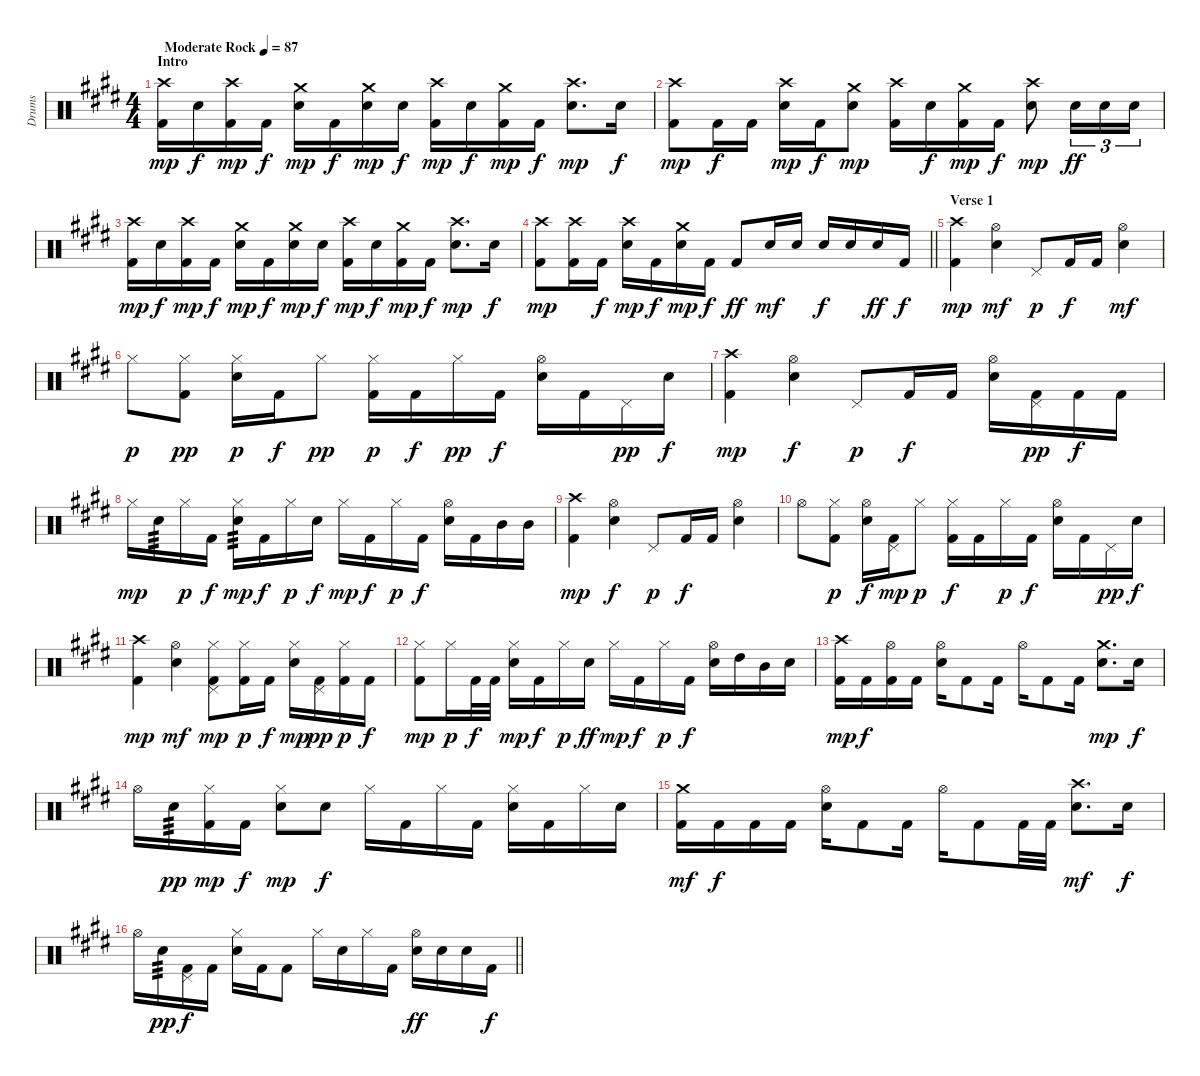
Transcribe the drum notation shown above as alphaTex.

\track ("Drums" "Drums") {instrument percussion}
\staff {score}
\articulation defaults
\ts (4 4)
\section ("" "Intro")
\tempo (87 "Moderate Rock")
\clef neutral
\ks c#minor
("Crash high (hit)" "Kick (hit) 2").16{dy mp} "Electric Snare (hit)".16{dy f} ("Kick (hit) 2" "Crash high (hit)").16{dy mp} "Kick (hit) 2".16{dy f} ("Electric Snare (hit)" "Crash medium (hit)").16{dy mp} "Kick (hit) 2".16{dy f} ("Crash medium (hit)" "Electric Snare (hit)").16{dy mp} "Electric Snare (hit)".16{dy f} ("Kick (hit) 2" "Crash high (hit)").16{dy mp} "Electric Snare (hit)".16{dy f} ("Kick (hit) 2" "Crash medium (hit)").16{dy mp} "Kick (hit) 2".16{dy f} ("Electric Snare (hit)" "Crash high (hit)").8{d dy mp} "Electric Snare (hit)".16{dy f} |
("Kick (hit) 2" "Crash high (hit)").8{dy mp} "Kick (hit) 2".16{dy f} "Kick (hit) 2".16 ("Electric Snare (hit)" "Crash high (hit)").16{dy mp} "Kick (hit) 2".16{dy f} ("Electric Snare (hit)" "Crash medium (hit)").8{dy mp} ("Kick (hit) 2" "Crash high (hit)").16 "Electric Snare (hit)".16{dy f} ("Kick (hit) 2" "Crash medium (hit)").16{dy mp} "Kick (hit) 2".16{dy f} ("Electric Snare (hit)" "Crash high (hit)").8{dy mp} "Electric Snare (hit)".16{tu (3 2) dy ff} "Electric Snare (hit)".16{tu (3 2)} "Electric Snare (hit)".16{tu (3 2)} |
("Crash high (hit)" "Kick (hit) 2").16{dy mp} "Electric Snare (hit)".16{dy f} ("Kick (hit) 2" "Crash high (hit)").16{dy mp} "Kick (hit) 2".16{dy f} ("Electric Snare (hit)" "Crash medium (hit)").16{dy mp} "Kick (hit) 2".16{dy f} ("Crash medium (hit)" "Electric Snare (hit)").16{dy mp} "Electric Snare (hit)".16{dy f} ("Kick (hit) 2" "Crash high (hit)").16{dy mp} "Electric Snare (hit)".16{dy f} ("Kick (hit) 2" "Crash medium (hit)").16{dy mp} "Kick (hit) 2".16{dy f} ("Electric Snare (hit)" "Crash high (hit)").8{d dy mp} "Electric Snare (hit)".16{dy f} |
\barLineRight lightlight
("Kick (hit) 2" "Crash high (hit)").8{dy mp} ("Kick (hit) 2" "Crash high (hit)").16 "Kick (hit) 2".16{dy f} ("Electric Snare (hit)" "Crash high (hit)").16{dy mp} "Kick (hit) 2".16{dy f} ("Electric Snare (hit)" "Crash medium (hit)").16{dy mp} "Kick (hit) 2".16{dy f} "Kick (hit) 2".8{dy ff} "Electric Snare (hit)".16{dy mf} "Electric Snare (hit)".16 "Electric Snare (hit)".16{dy f} "Electric Snare (hit)".16 "Electric Snare (hit)".16{dy ff} "Kick (hit) 2".16{dy f} |
\section ("" "Verse 1")
("Kick (hit) 2" "Crash high (hit)").4{dy mp} ("Electric Snare (hit)" "Hi-Hat (open)").4{dy mf} "Pedal Hi-Hat (hit)".8{dy p} "Kick (hit) 2".16{dy f} "Kick (hit) 2".16 ("Electric Snare (hit)" "Hi-Hat (open)").4{dy mf} |
"Hi-Hat (closed)".8{dy p} ("Hi-Hat (closed)" "Kick (hit) 2").8{dy pp} ("Hi-Hat (closed)" "Electric Snare (hit)").16{dy p} "Kick (hit) 2".16{dy f} "Hi-Hat (closed)".8{dy pp} ("Hi-Hat (closed)" "Kick (hit) 2").16{dy p} "Kick (hit) 2".16{dy f} "Hi-Hat (closed)".16{dy pp} "Kick (hit) 2".16{dy f} ("Hi-Hat (open)" "Electric Snare (hit)").16 "Kick (hit) 2".16 "Pedal Hi-Hat (hit)".16{dy pp} "Electric Snare (hit)".16{dy f} |
("Kick (hit) 2" "Crash high (hit)").4{dy mp} ("Electric Snare (hit)" "Hi-Hat (open)").4{dy f} "Pedal Hi-Hat (hit)".8{dy p} "Kick (hit) 2".16{dy f} "Kick (hit) 2".16 ("Electric Snare (hit)" "Hi-Hat (open)").16 ("Pedal Hi-Hat (hit)" "Kick (hit) 2").16{dy pp} "Kick (hit) 2".16{dy f} "Kick (hit) 2".16 |
"Hi-Hat (closed)".16{dy mp} "Electric Snare (hit)".16{tp 3} "Hi-Hat (closed)".16{dy p} "Kick (hit) 2".16{dy f} ("Electric Snare (hit)" "Hi-Hat (closed)").16{tp 3 dy mp} "Kick (hit) 2".16{dy f} "Hi-Hat (closed)".16{dy p} "Electric Snare (hit)".16{dy f} "Hi-Hat (closed)".16{dy mp} "Kick (hit) 2".16{dy f} "Hi-Hat (closed)".16{dy p} "Kick (hit) 2".16{dy f} ("Hi-Hat (open)" "Electric Snare (hit)").16 "Kick (hit) 2".16 "Mid Tom (hit)".16 "Mid Tom (hit)".16 |
("Kick (hit) 2" "Crash high (hit)").4{dy mp} ("Electric Snare (hit)" "Hi-Hat (open)").4{dy f} "Pedal Hi-Hat (hit)".8{dy p} "Kick (hit) 2".16{dy f} "Kick (hit) 2".16 ("Electric Snare (hit)" "Hi-Hat (open)").4 |
"Hi-Hat (open)".8 ("Hi-Hat (closed)" "Kick (hit) 2").8{dy p} ("Hi-Hat (open)" "Electric Snare (hit)").16{dy f} ("Pedal Hi-Hat (hit)" "Kick (hit) 2").16{dy mp} "Hi-Hat (closed)".8{dy p} ("Hi-Hat (closed)" "Kick (hit) 2").16{dy f} "Kick (hit) 2".16 "Hi-Hat (closed)".16{dy p} "Kick (hit) 2".16{dy f} ("Hi-Hat (open)" "Electric Snare (hit)").16 "Kick (hit) 2".16 "Pedal Hi-Hat (hit)".16{dy pp} "Electric Snare (hit)".16{dy f} |
("Kick (hit) 2" "Crash high (hit)").4{dy mp} ("Electric Snare (hit)" "Hi-Hat (open)").4{dy mf} ("Pedal Hi-Hat (hit)" "Kick (hit) 2" "Hi-Hat (closed)").8{dy mp} ("Kick (hit) 2" "Hi-Hat (closed)").16{dy p} "Kick (hit) 2".16{dy f} ("Electric Snare (hit)" "Hi-Hat (closed)").16{dy mp} ("Pedal Hi-Hat (hit)" "Kick (hit) 2").16{dy pp} ("Kick (hit) 2" "Hi-Hat (closed)").16{dy p} "Kick (hit) 2".16{dy f} |
("Hi-Hat (closed)" "Kick (hit) 2").8{dy mp} "Hi-Hat (closed)".16{dy p} "Kick (hit) 2".32{dy f} "Kick (hit) 2".32 ("Hi-Hat (closed)" "Electric Snare (hit)").16{dy mp} "Kick (hit) 2".16{dy f} "Hi-Hat (closed)".16{dy p} "Electric Snare (hit)".16{dy ff} "Hi-Hat (closed)".16{dy mp} "Kick (hit) 2".16{dy f} "Hi-Hat (closed)".16{dy p} "Kick (hit) 2".16{dy f} ("Hi-Hat (open)" "Electric Snare (hit)").16 "High Tom (hit)".16 "Mid Tom (hit)".16 "Electric Snare (hit)".16 |
("Crash high (hit)" "Kick (hit) 2").16{dy mp} "Kick (hit) 2".16{dy f} ("Kick (hit) 2" "Hi-Hat (open)").16 "Kick (hit) 2".16 ("Hi-Hat (open)" "Electric Snare (hit)").16 "Kick (hit) 2".8 "Kick (hit) 2".16 "Hi-Hat (open)".16 "Kick (hit) 2".8 "Kick (hit) 2".16 ("Crash medium (hit)" "Electric Snare (hit)").8{d dy mp} "Electric Snare (hit)".16{dy f} |
"Hi-Hat (open)".16 "Electric Snare (hit)".16{tp 3 dy pp} ("Hi-Hat (closed)" "Kick (hit) 2").16{dy mp} "Kick (hit) 2".16{dy f} ("Hi-Hat (closed)" "Electric Snare (hit)").8{dy mp} "Electric Snare (hit)".8{dy f} "Hi-Hat (closed)".16 "Kick (hit) 2".16 "Hi-Hat (closed)".16 "Kick (hit) 2".16 ("Electric Snare (hit)" "Hi-Hat (closed)").16 "Kick (hit) 2".16 "Hi-Hat (closed)".16 "Electric Snare (hit)".16 |
("Kick (hit) 2" "Crash medium (hit)").16{dy mf} "Kick (hit) 2".16{dy f} "Kick (hit) 2".16 "Kick (hit) 2".16 ("Electric Snare (hit)" "Hi-Hat (open)").16 "Kick (hit) 2".8 "Kick (hit) 2".16 "Hi-Hat (open)".16 "Kick (hit) 2".8 "Kick (hit) 2".32 "Kick (hit) 2".32 ("Electric Snare (hit)" "Crash high (hit)").8{d dy mf} "Electric Snare (hit)".16{dy f} |
\barLineRight lightlight "Hi-Hat (open)".16 "Electric Snare (hit)".16{tp 3 dy pp}
("Pedal Hi-Hat (hit)" "Kick (hit) 2").16{dy f} "Kick (hit) 2".16 ("Electric Snare (hit)" "Hi-Hat (closed)").16 "Kick (hit) 2".16 "Kick (hit) 2".8 "Hi-Hat (closed)".16 "Electric Snare (hit)".16 "Hi-Hat (closed)".16 "Kick (hit) 2".16 ("Hi-Hat (open)" "Electric Snare (hit)").16{dy ff} "Electric Snare (hit)".16 "Electric Snare (hit)".16 "Kick (hit) 2".16{dy f}
